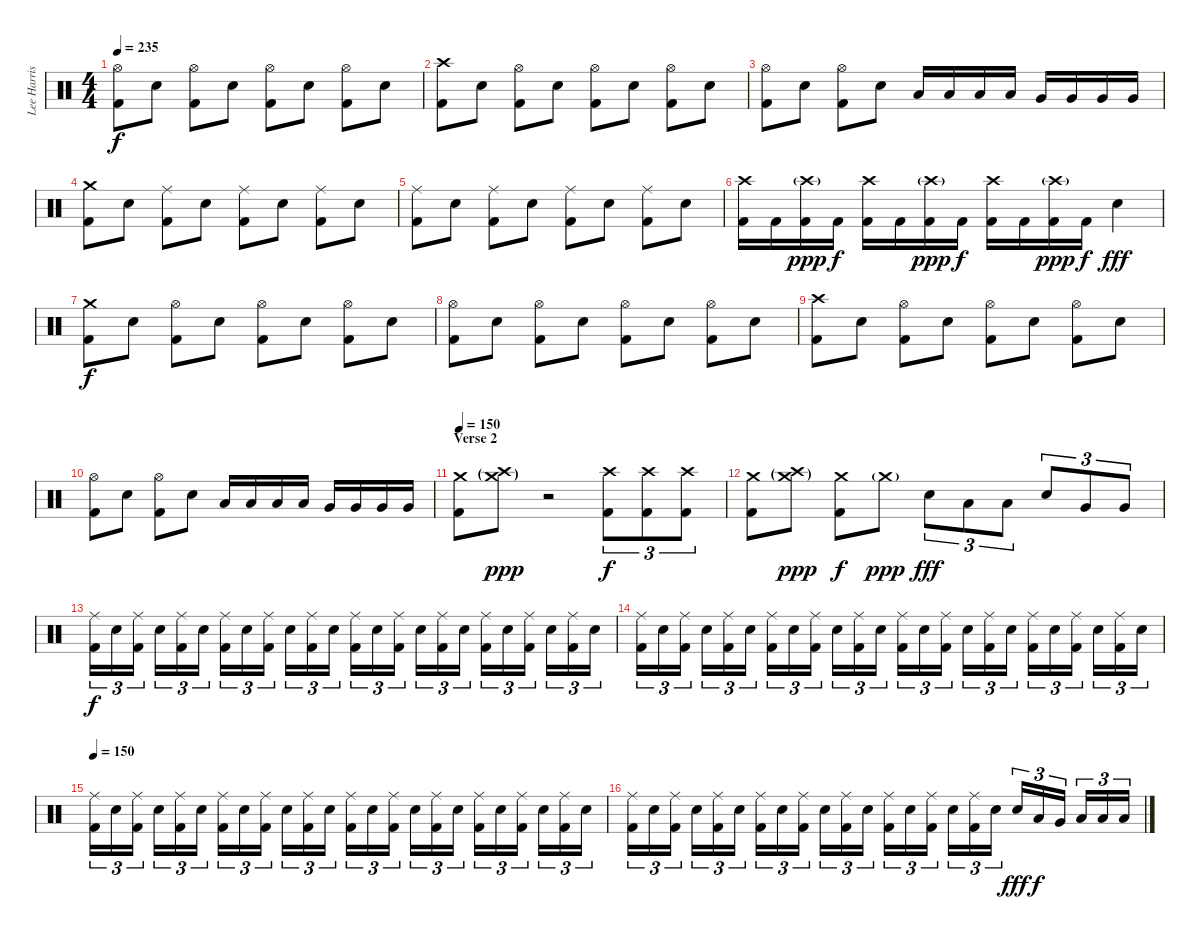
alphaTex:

\track ("Lee Harrison" "Lee Harris") {instrument percussion}
\staff {score}
\articulation defaults
\ts (4 4)
\tempo 235
\clef neutral
\ks c
("Hi-Hat (open)" "Kick (hit) 2").8{dy f} "Electric Snare (hit)".8 ("Hi-Hat (open)" "Kick (hit) 2").8 "Electric Snare (hit)".8 ("Hi-Hat (open)" "Kick (hit) 2").8 "Electric Snare (hit)".8 ("Hi-Hat (open)" "Kick (hit) 2").8 "Electric Snare (hit)".8 |
("Crash high (hit)" "Kick (hit) 2").8 "Electric Snare (hit)".8 ("Hi-Hat (open)" "Kick (hit) 2").8 "Electric Snare (hit)".8 ("Hi-Hat (open)" "Kick (hit) 2").8 "Electric Snare (hit)".8 ("Hi-Hat (open)" "Kick (hit) 2").8 "Electric Snare (hit)".8 |
("Hi-Hat (open)" "Kick (hit) 2").8 "Electric Snare (hit)".8 ("Hi-Hat (open)" "Kick (hit) 2").8 "Electric Snare (hit)".8 "Low Tom (hit)".16 "Low Tom (hit)".16 "Low Tom (hit)".16 "Low Tom (hit)".16 "Very Low Tom (hit)".16 "Very Low Tom (hit)".16 "Very Low Tom (hit)".16 "Very Low Tom (hit)".16 |
("Crash medium (hit)" "Kick (hit) 2").8 "Electric Snare (hit)".8 ("Ride (middle)" "Kick (hit) 2").8 "Electric Snare (hit)".8 ("Ride (middle)" "Kick (hit) 2").8 "Electric Snare (hit)".8 ("Ride (middle)" "Kick (hit) 2").8 "Electric Snare (hit)".8 |
("Ride (middle)" "Kick (hit) 2").8 "Electric Snare (hit)".8 ("Ride (middle)" "Kick (hit) 2").8 "Electric Snare (hit)".8 ("Ride (middle)" "Kick (hit) 2").8 "Electric Snare (hit)".8 ("Ride (middle)" "Kick (hit) 2").8 "Electric Snare (hit)".8 |
("Crash high (hit)" "Kick (hit) 2").16 "Kick (hit) 2".16 ("Crash high (hit)"{g} "Kick (hit) 2").16{dy ppp} "Kick (hit) 2".16{dy f} ("Crash high (hit)" "Kick (hit) 2").16 "Kick (hit) 2".16 ("Crash high (hit)"{g} "Kick (hit) 2").16{dy ppp} "Kick (hit) 2".16{dy f} ("Crash high (hit)" "Kick (hit) 2").16 "Kick (hit) 2".16 ("Crash high (hit)"{g} "Kick (hit) 2").16{dy ppp} "Kick (hit) 2".16{dy f} "Electric Snare (hit)".4{dy fff} |
("Crash medium (hit)" "Kick (hit) 2").8{dy f} "Electric Snare (hit)".8 ("Hi-Hat (open)" "Kick (hit) 2").8 "Electric Snare (hit)".8 ("Hi-Hat (open)" "Kick (hit) 2").8 "Electric Snare (hit)".8 ("Hi-Hat (open)" "Kick (hit) 2").8 "Electric Snare (hit)".8 |
("Hi-Hat (open)" "Kick (hit) 2").8 "Electric Snare (hit)".8 ("Hi-Hat (open)" "Kick (hit) 2").8 "Electric Snare (hit)".8 ("Hi-Hat (open)" "Kick (hit) 2").8 "Electric Snare (hit)".8 ("Hi-Hat (open)" "Kick (hit) 2").8 "Electric Snare (hit)".8 |
("Crash high (hit)" "Kick (hit) 2").8 "Electric Snare (hit)".8 ("Hi-Hat (open)" "Kick (hit) 2").8 "Electric Snare (hit)".8 ("Hi-Hat (open)" "Kick (hit) 2").8 "Electric Snare (hit)".8 ("Hi-Hat (open)" "Kick (hit) 2").8 "Electric Snare (hit)".8 |
("Hi-Hat (open)" "Kick (hit) 2").8 "Electric Snare (hit)".8 ("Hi-Hat (open)" "Kick (hit) 2").8 "Electric Snare (hit)".8 "Low Tom (hit)".16 "Low Tom (hit)".16 "Low Tom (hit)".16 "Low Tom (hit)".16 "Very Low Tom (hit)".16 "Very Low Tom (hit)".16 "Very Low Tom (hit)".16 "Very Low Tom (hit)".16 |
\section ("" "Verse 2")
\tempo 150
("Crash medium (hit)" "Kick (hit) 2").8 ("Crash medium (hit)"{g} "Crash high (hit)"{g}).8{dy ppp} r.2 ("Crash high (hit)" "Kick (hit) 2").8{tu (3 2) dy f} ("Crash high (hit)" "Kick (hit) 2").8{tu (3 2)} ("Crash high (hit)" "Kick (hit) 2").8{tu (3 2)} |
("Crash medium (hit)" "Kick (hit) 2").8 ("Crash medium (hit)"{g} "Crash high (hit)"{g}).8{dy ppp} ("Crash medium (hit)" "Kick (hit) 2").8{dy f} "Crash medium (hit)"{g}.8{dy ppp} "Electric Snare (hit)".8{tu (3 2) dy fff} "Low Tom (hit)".8{tu (3 2)} "Low Tom (hit)".8{tu (3 2)} "Electric Snare (hit)".8{tu (3 2)} "Very Low Tom (hit)".8{tu (3 2)} "Very Low Tom (hit)".8{tu (3 2)} |
("Ride (middle)" "Kick (hit) 2").16{tu (3 2) dy f} "Electric Snare (hit)".16{tu (3 2)} ("Ride (middle)" "Kick (hit) 2").16{tu (3 2)} "Electric Snare (hit)".16{tu (3 2)} ("Ride (middle)" "Kick (hit) 2").16{tu (3 2)} "Electric Snare (hit)".16{tu (3 2)} ("Ride (middle)" "Kick (hit) 2").16{tu (3 2)} "Electric Snare (hit)".16{tu (3 2)} ("Ride (middle)" "Kick (hit) 2").16{tu (3 2)} "Electric Snare (hit)".16{tu (3 2)} ("Ride (middle)" "Kick (hit) 2").16{tu (3 2)} "Electric Snare (hit)".16{tu (3 2)} ("Ride (middle)" "Kick (hit) 2").16{tu (3 2)} "Electric Snare (hit)".16{tu (3 2)} ("Ride (middle)" "Kick (hit) 2").16{tu (3 2)} "Electric Snare (hit)".16{tu (3 2)} ("Ride (middle)" "Kick (hit) 2").16{tu (3 2)} "Electric Snare (hit)".16{tu (3 2)} ("Ride (middle)" "Kick (hit) 2").16{tu (3 2)} "Electric Snare (hit)".16{tu (3 2)} ("Ride (middle)" "Kick (hit) 2").16{tu (3 2)} "Electric Snare (hit)".16{tu (3 2)} ("Ride (middle)" "Kick (hit) 2").16{tu (3 2)} "Electric Snare (hit)".16{tu (3 2)} |
("Ride (middle)" "Kick (hit) 2").16{tu (3 2)} "Electric Snare (hit)".16{tu (3 2)} ("Ride (middle)" "Kick (hit) 2").16{tu (3 2)} "Electric Snare (hit)".16{tu (3 2)} ("Ride (middle)" "Kick (hit) 2").16{tu (3 2)} "Electric Snare (hit)".16{tu (3 2)} ("Ride (middle)" "Kick (hit) 2").16{tu (3 2)} "Electric Snare (hit)".16{tu (3 2)} ("Ride (middle)" "Kick (hit) 2").16{tu (3 2)} "Electric Snare (hit)".16{tu (3 2)} ("Ride (middle)" "Kick (hit) 2").16{tu (3 2)} "Electric Snare (hit)".16{tu (3 2)} ("Ride (middle)" "Kick (hit) 2").16{tu (3 2)} "Electric Snare (hit)".16{tu (3 2)} ("Ride (middle)" "Kick (hit) 2").16{tu (3 2)} "Electric Snare (hit)".16{tu (3 2)} ("Ride (middle)" "Kick (hit) 2").16{tu (3 2)} "Electric Snare (hit)".16{tu (3 2)} ("Ride (middle)" "Kick (hit) 2").16{tu (3 2)} "Electric Snare (hit)".16{tu (3 2)} ("Ride (middle)" "Kick (hit) 2").16{tu (3 2)} "Electric Snare (hit)".16{tu (3 2)} ("Ride (middle)" "Kick (hit) 2").16{tu (3 2)} "Electric Snare (hit)".16{tu (3 2)} |
\tempo 150
("Ride (middle)" "Kick (hit) 2").16{tu (3 2)} "Electric Snare (hit)".16{tu (3 2)} ("Ride (middle)" "Kick (hit) 2").16{tu (3 2)} "Electric Snare (hit)".16{tu (3 2)} ("Ride (middle)" "Kick (hit) 2").16{tu (3 2)} "Electric Snare (hit)".16{tu (3 2)} ("Ride (middle)" "Kick (hit) 2").16{tu (3 2)} "Electric Snare (hit)".16{tu (3 2)} ("Ride (middle)" "Kick (hit) 2").16{tu (3 2)} "Electric Snare (hit)".16{tu (3 2)} ("Ride (middle)" "Kick (hit) 2").16{tu (3 2)} "Electric Snare (hit)".16{tu (3 2)} ("Ride (middle)" "Kick (hit) 2").16{tu (3 2)} "Electric Snare (hit)".16{tu (3 2)} ("Ride (middle)" "Kick (hit) 2").16{tu (3 2)} "Electric Snare (hit)".16{tu (3 2)} ("Ride (middle)" "Kick (hit) 2").16{tu (3 2)} "Electric Snare (hit)".16{tu (3 2)} ("Ride (middle)" "Kick (hit) 2").16{tu (3 2)} "Electric Snare (hit)".16{tu (3 2)} ("Ride (middle)" "Kick (hit) 2").16{tu (3 2)} "Electric Snare (hit)".16{tu (3 2)} ("Ride (middle)" "Kick (hit) 2").16{tu (3 2)} "Electric Snare (hit)".16{tu (3 2)} |
("Ride (middle)" "Kick (hit) 2").16{tu (3 2)} "Electric Snare (hit)".16{tu (3 2)} ("Ride (middle)" "Kick (hit) 2").16{tu (3 2)} "Electric Snare (hit)".16{tu (3 2)} ("Ride (middle)" "Kick (hit) 2").16{tu (3 2)} "Electric Snare (hit)".16{tu (3 2)} ("Ride (middle)" "Kick (hit) 2").16{tu (3 2)} "Electric Snare (hit)".16{tu (3 2)} ("Ride (middle)" "Kick (hit) 2").16{tu (3 2)} "Electric Snare (hit)".16{tu (3 2)} ("Ride (middle)" "Kick (hit) 2").16{tu (3 2)} "Electric Snare (hit)".16{tu (3 2)} ("Ride (middle)" "Kick (hit) 2").16{tu (3 2)} "Electric Snare (hit)".16{tu (3 2)} ("Ride (middle)" "Kick (hit) 2").16{tu (3 2)} "Electric Snare (hit)".16{tu (3 2)} ("Ride (middle)" "Kick (hit) 2").16{tu (3 2)} "Electric Snare (hit)".16{tu (3 2)} "Electric Snare (hit)".16{tu (3 2) dy fff} "Low Tom (hit)".16{tu (3 2) dy f} "Very Low Tom (hit)".16{tu (3 2)} "Low Floor Tom (hit)".16{tu (3 2)} "Low Floor Tom (hit)".16{tu (3 2)} "Low Floor Tom (hit)".16{tu (3 2)}
